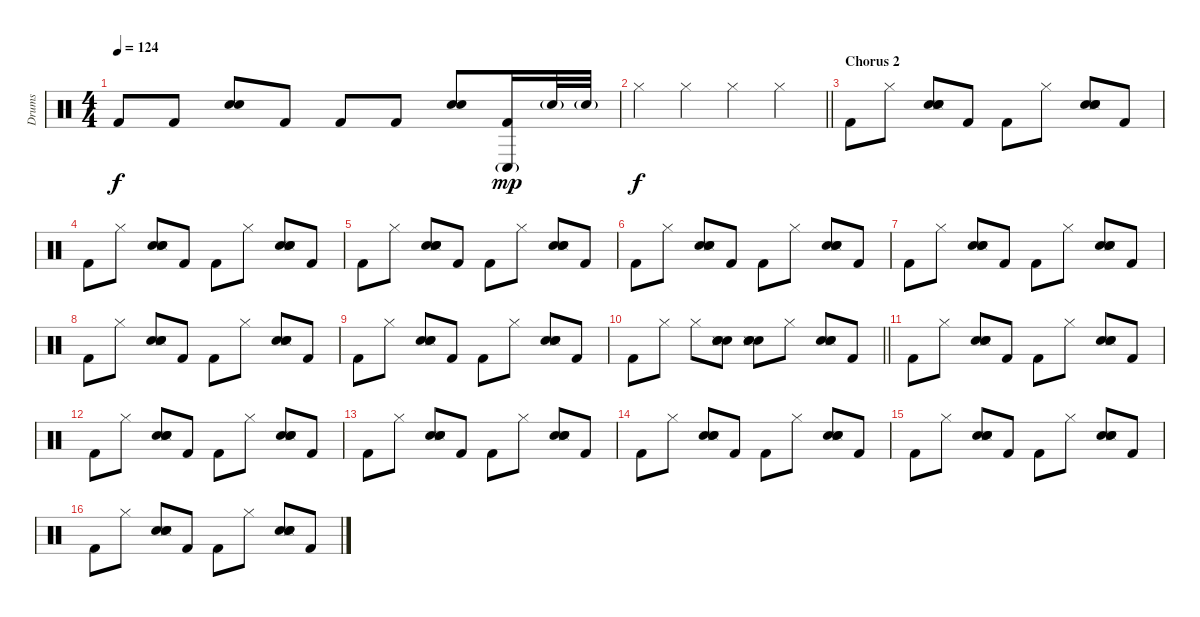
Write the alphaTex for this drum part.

\track ("Drums" "Drums") {instrument percussion}
\staff {score}
\articulation defaults
\ts (4 4)
\tempo 124
\clef neutral
\ks c "Kick (hit) 2".8{dy f} "Kick (hit) 2".8
("Snare (hit) 2" "Electric Snare (hit)").8 "Kick (hit) 2".8 "Kick (hit) 2".8 "Kick (hit) 2".8 ("Snare (hit) 2" "Electric Snare (hit)").8 ("Conga low (hit)"{g} "Kick (hit) 2").16{dy mp} "Electric Snare (hit)"{g}.32 "Electric Snare (hit)"{g}.32 |
\barLineRight lightlight "Hi-Hat (closed)".4{dy f} "Hi-Hat (closed)".4 "Hi-Hat (closed)".4 "Hi-Hat (closed)".4
|
\section ("" "Chorus 2")
"Kick (hit) 2".8 "Hi-Hat (closed)".8 ("Snare (hit) 2" "Snare (side stick) 3" "Hand Clap (hit)" "Electric Snare (hit)").8 "Kick (hit) 2".8 "Kick (hit) 2".8 "Hi-Hat (closed)".8 ("Snare (hit) 2" "Snare (side stick) 3" "Hand Clap (hit)" "Electric Snare (hit)").8 "Kick (hit) 2".8 |
"Kick (hit) 2".8 "Hi-Hat (closed)".8 ("Snare (hit) 2" "Snare (side stick) 3" "Hand Clap (hit)" "Electric Snare (hit)").8 "Kick (hit) 2".8 "Kick (hit) 2".8 "Hi-Hat (closed)".8 ("Snare (hit) 2" "Snare (side stick) 3" "Hand Clap (hit)" "Electric Snare (hit)").8 "Kick (hit) 2".8 |
"Kick (hit) 2".8 "Hi-Hat (closed)".8 ("Snare (hit) 2" "Snare (side stick) 3" "Hand Clap (hit)" "Electric Snare (hit)").8 "Kick (hit) 2".8 "Kick (hit) 2".8 "Hi-Hat (closed)".8 ("Snare (hit) 2" "Snare (side stick) 3" "Hand Clap (hit)" "Electric Snare (hit)").8 "Kick (hit) 2".8 |
"Kick (hit) 2".8 "Hi-Hat (closed)".8 ("Snare (hit) 2" "Snare (side stick) 3" "Hand Clap (hit)" "Electric Snare (hit)").8 "Kick (hit) 2".8 "Kick (hit) 2".8 "Hi-Hat (closed)".8 ("Snare (hit) 2" "Snare (side stick) 3" "Hand Clap (hit)" "Electric Snare (hit)").8 "Kick (hit) 2".8 |
"Kick (hit) 2".8 "Hi-Hat (closed)".8 ("Snare (hit) 2" "Snare (side stick) 3" "Hand Clap (hit)" "Electric Snare (hit)").8 "Kick (hit) 2".8 "Kick (hit) 2".8 "Hi-Hat (closed)".8 ("Snare (hit) 2" "Snare (side stick) 3" "Hand Clap (hit)" "Electric Snare (hit)").8 "Kick (hit) 2".8 |
"Kick (hit) 2".8 "Hi-Hat (closed)".8 ("Snare (hit) 2" "Snare (side stick) 3" "Hand Clap (hit)" "Electric Snare (hit)").8 "Kick (hit) 2".8 "Kick (hit) 2".8 "Hi-Hat (closed)".8 ("Snare (hit) 2" "Snare (side stick) 3" "Hand Clap (hit)" "Electric Snare (hit)").8 "Kick (hit) 2".8 |
"Kick (hit) 2".8 "Hi-Hat (closed)".8 ("Snare (hit) 2" "Snare (side stick) 3" "Hand Clap (hit)" "Electric Snare (hit)").8 "Kick (hit) 2".8 "Kick (hit) 2".8 "Hi-Hat (closed)".8 ("Snare (hit) 2" "Snare (side stick) 3" "Hand Clap (hit)" "Electric Snare (hit)").8 "Kick (hit) 2".8 |
\barLineRight lightlight "Kick (hit) 2".8 "Hi-Hat (closed)".8 "Hi-Hat (closed)".8
("Snare (hit) 2" "Snare (side stick) 3" "Hand Clap (hit)" "Electric Snare (hit)").8 ("Snare (hit) 2" "Snare (side stick) 3" "Hand Clap (hit)" "Electric Snare (hit)").8 "Hi-Hat (closed)".8 ("Snare (hit) 2" "Snare (side stick) 3" "Hand Clap (hit)" "Electric Snare (hit)").8 "Kick (hit) 2".8 |
"Kick (hit) 2".8 "Hi-Hat (closed)".8 ("Snare (hit) 2" "Snare (side stick) 3" "Hand Clap (hit)" "Electric Snare (hit)").8 "Kick (hit) 2".8 "Kick (hit) 2".8 "Hi-Hat (closed)".8 ("Snare (hit) 2" "Snare (side stick) 3" "Hand Clap (hit)" "Electric Snare (hit)").8 "Kick (hit) 2".8 |
"Kick (hit) 2".8 "Hi-Hat (closed)".8 ("Snare (hit) 2" "Snare (side stick) 3" "Hand Clap (hit)" "Electric Snare (hit)").8 "Kick (hit) 2".8 "Kick (hit) 2".8 "Hi-Hat (closed)".8 ("Snare (hit) 2" "Snare (side stick) 3" "Hand Clap (hit)" "Electric Snare (hit)").8 "Kick (hit) 2".8 |
"Kick (hit) 2".8 "Hi-Hat (closed)".8 ("Snare (hit) 2" "Snare (side stick) 3" "Hand Clap (hit)" "Electric Snare (hit)").8 "Kick (hit) 2".8 "Kick (hit) 2".8 "Hi-Hat (closed)".8 ("Snare (hit) 2" "Snare (side stick) 3" "Hand Clap (hit)" "Electric Snare (hit)").8 "Kick (hit) 2".8 |
"Kick (hit) 2".8 "Hi-Hat (closed)".8 ("Snare (hit) 2" "Snare (side stick) 3" "Hand Clap (hit)" "Electric Snare (hit)").8 "Kick (hit) 2".8 "Kick (hit) 2".8 "Hi-Hat (closed)".8 ("Snare (hit) 2" "Snare (side stick) 3" "Hand Clap (hit)" "Electric Snare (hit)").8 "Kick (hit) 2".8 |
"Kick (hit) 2".8 "Hi-Hat (closed)".8 ("Snare (hit) 2" "Snare (side stick) 3" "Hand Clap (hit)" "Electric Snare (hit)").8 "Kick (hit) 2".8 "Kick (hit) 2".8 "Hi-Hat (closed)".8 ("Snare (hit) 2" "Snare (side stick) 3" "Hand Clap (hit)" "Electric Snare (hit)").8 "Kick (hit) 2".8 |
"Kick (hit) 2".8 "Hi-Hat (closed)".8 ("Snare (hit) 2" "Snare (side stick) 3" "Hand Clap (hit)" "Electric Snare (hit)").8 "Kick (hit) 2".8 "Kick (hit) 2".8 "Hi-Hat (closed)".8 ("Snare (hit) 2" "Snare (side stick) 3" "Hand Clap (hit)" "Electric Snare (hit)").8 "Kick (hit) 2".8
